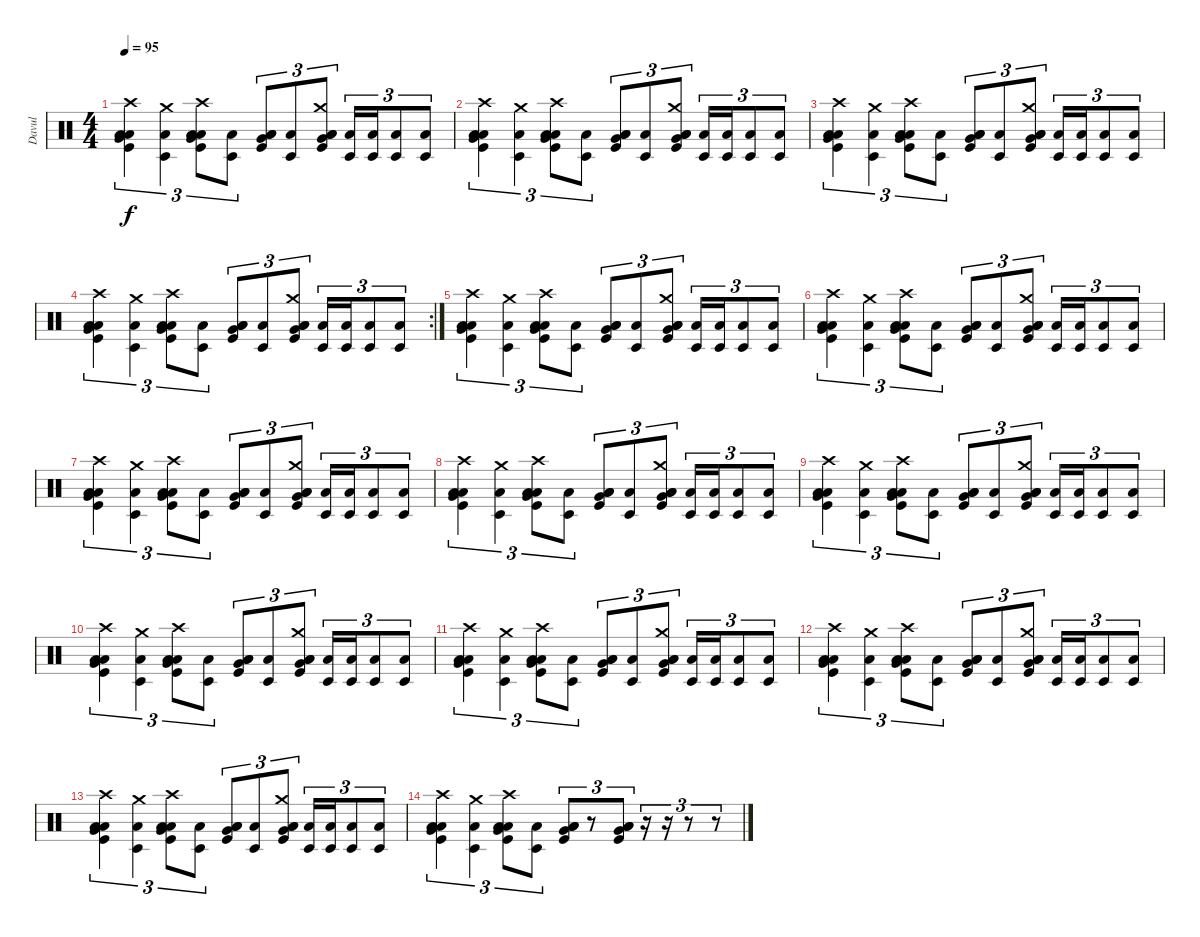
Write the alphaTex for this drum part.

\track ("Davul" "Davul") {instrument percussion}
\staff {score}
\articulation defaults
\ts (4 4)
\tempo 95
\clef neutral
\ks c
("Kick (hit)" "Low Tom (hit)" "Low Floor Tom (hit)" "Very Low Tom (hit)" "Crash high (hit)").4{tu (3 2) dy f} ("Timbale low (hit)" "Low Floor Tom (hit)" "Crash medium (hit)").4{tu (3 2)} ("Kick (hit)" "Low Tom (hit)" "Low Floor Tom (hit)" "Very Low Tom (hit)" "Crash high (hit)").8{tu (3 2)} ("Timbale low (hit)" "Low Floor Tom (hit)").8{tu (3 2)} ("Kick (hit)" "Low Tom (hit)" "Low Floor Tom (hit)" "Very Low Tom (hit)").8{tu (3 2)} ("Timbale low (hit)" "Low Floor Tom (hit)").8{tu (3 2)} ("Kick (hit)" "Low Tom (hit)" "Low Floor Tom (hit)" "Very Low Tom (hit)" "Crash medium (hit)").8{tu (3 2)} ("Timbale low (hit)" "Low Floor Tom (hit)").16{tu (3 2)} ("Timbale low (hit)" "Low Floor Tom (hit)").16{tu (3 2)} ("Timbale low (hit)" "Low Floor Tom (hit)").8{tu (3 2)} ("Timbale low (hit)" "Low Floor Tom (hit)").8{tu (3 2)} |
("Kick (hit)" "Low Tom (hit)" "Low Floor Tom (hit)" "Very Low Tom (hit)" "Crash high (hit)").4{tu (3 2)} ("Timbale low (hit)" "Low Floor Tom (hit)" "Crash medium (hit)").4{tu (3 2)} ("Kick (hit)" "Low Tom (hit)" "Low Floor Tom (hit)" "Very Low Tom (hit)" "Crash high (hit)").8{tu (3 2)} ("Timbale low (hit)" "Low Floor Tom (hit)").8{tu (3 2)} ("Kick (hit)" "Low Tom (hit)" "Low Floor Tom (hit)" "Very Low Tom (hit)").8{tu (3 2)} ("Timbale low (hit)" "Low Floor Tom (hit)").8{tu (3 2)} ("Kick (hit)" "Low Tom (hit)" "Low Floor Tom (hit)" "Very Low Tom (hit)" "Crash medium (hit)").8{tu (3 2)} ("Timbale low (hit)" "Low Floor Tom (hit)").16{tu (3 2)} ("Timbale low (hit)" "Low Floor Tom (hit)").16{tu (3 2)} ("Timbale low (hit)" "Low Floor Tom (hit)").8{tu (3 2)} ("Timbale low (hit)" "Low Floor Tom (hit)").8{tu (3 2)} |
("Kick (hit)" "Low Tom (hit)" "Low Floor Tom (hit)" "Very Low Tom (hit)" "Crash high (hit)").4{tu (3 2)} ("Timbale low (hit)" "Low Floor Tom (hit)" "Crash medium (hit)").4{tu (3 2)} ("Kick (hit)" "Low Tom (hit)" "Low Floor Tom (hit)" "Very Low Tom (hit)" "Crash high (hit)").8{tu (3 2)} ("Timbale low (hit)" "Low Floor Tom (hit)").8{tu (3 2)} ("Kick (hit)" "Low Tom (hit)" "Low Floor Tom (hit)" "Very Low Tom (hit)").8{tu (3 2)} ("Timbale low (hit)" "Low Floor Tom (hit)").8{tu (3 2)} ("Kick (hit)" "Low Tom (hit)" "Low Floor Tom (hit)" "Very Low Tom (hit)" "Crash medium (hit)").8{tu (3 2)} ("Timbale low (hit)" "Low Floor Tom (hit)").16{tu (3 2)} ("Timbale low (hit)" "Low Floor Tom (hit)").16{tu (3 2)} ("Timbale low (hit)" "Low Floor Tom (hit)").8{tu (3 2)} ("Timbale low (hit)" "Low Floor Tom (hit)").8{tu (3 2)} |
\rc 2
("Kick (hit)" "Low Tom (hit)" "Low Floor Tom (hit)" "Very Low Tom (hit)" "Crash high (hit)").4{tu (3 2)} ("Timbale low (hit)" "Low Floor Tom (hit)" "Crash medium (hit)").4{tu (3 2)} ("Kick (hit)" "Low Tom (hit)" "Low Floor Tom (hit)" "Very Low Tom (hit)" "Crash high (hit)").8{tu (3 2)} ("Timbale low (hit)" "Low Floor Tom (hit)").8{tu (3 2)} ("Kick (hit)" "Low Tom (hit)" "Low Floor Tom (hit)" "Very Low Tom (hit)").8{tu (3 2)} ("Timbale low (hit)" "Low Floor Tom (hit)").8{tu (3 2)} ("Kick (hit)" "Low Tom (hit)" "Low Floor Tom (hit)" "Very Low Tom (hit)" "Crash medium (hit)").8{tu (3 2)} ("Timbale low (hit)" "Low Floor Tom (hit)").16{tu (3 2)} ("Timbale low (hit)" "Low Floor Tom (hit)").16{tu (3 2)} ("Timbale low (hit)" "Low Floor Tom (hit)").8{tu (3 2)} ("Timbale low (hit)" "Low Floor Tom (hit)").8{tu (3 2)} |
("Kick (hit)" "Low Tom (hit)" "Low Floor Tom (hit)" "Very Low Tom (hit)" "Crash high (hit)").4{tu (3 2)} ("Timbale low (hit)" "Low Floor Tom (hit)" "Crash medium (hit)").4{tu (3 2)} ("Kick (hit)" "Low Tom (hit)" "Low Floor Tom (hit)" "Very Low Tom (hit)" "Crash high (hit)").8{tu (3 2)} ("Timbale low (hit)" "Low Floor Tom (hit)").8{tu (3 2)} ("Kick (hit)" "Low Tom (hit)" "Low Floor Tom (hit)" "Very Low Tom (hit)").8{tu (3 2)} ("Timbale low (hit)" "Low Floor Tom (hit)").8{tu (3 2)} ("Kick (hit)" "Low Tom (hit)" "Low Floor Tom (hit)" "Very Low Tom (hit)" "Crash medium (hit)").8{tu (3 2)} ("Timbale low (hit)" "Low Floor Tom (hit)").16{tu (3 2)} ("Timbale low (hit)" "Low Floor Tom (hit)").16{tu (3 2)} ("Timbale low (hit)" "Low Floor Tom (hit)").8{tu (3 2)} ("Timbale low (hit)" "Low Floor Tom (hit)").8{tu (3 2)} |
("Kick (hit)" "Low Tom (hit)" "Low Floor Tom (hit)" "Very Low Tom (hit)" "Crash high (hit)").4{tu (3 2)} ("Timbale low (hit)" "Low Floor Tom (hit)" "Crash medium (hit)").4{tu (3 2)} ("Kick (hit)" "Low Tom (hit)" "Low Floor Tom (hit)" "Very Low Tom (hit)" "Crash high (hit)").8{tu (3 2)} ("Timbale low (hit)" "Low Floor Tom (hit)").8{tu (3 2)} ("Kick (hit)" "Low Tom (hit)" "Low Floor Tom (hit)" "Very Low Tom (hit)").8{tu (3 2)} ("Timbale low (hit)" "Low Floor Tom (hit)").8{tu (3 2)} ("Kick (hit)" "Low Tom (hit)" "Low Floor Tom (hit)" "Very Low Tom (hit)" "Crash medium (hit)").8{tu (3 2)} ("Timbale low (hit)" "Low Floor Tom (hit)").16{tu (3 2)} ("Timbale low (hit)" "Low Floor Tom (hit)").16{tu (3 2)} ("Timbale low (hit)" "Low Floor Tom (hit)").8{tu (3 2)} ("Timbale low (hit)" "Low Floor Tom (hit)").8{tu (3 2)} |
("Kick (hit)" "Low Tom (hit)" "Low Floor Tom (hit)" "Very Low Tom (hit)" "Crash high (hit)").4{tu (3 2)} ("Timbale low (hit)" "Low Floor Tom (hit)" "Crash medium (hit)").4{tu (3 2)} ("Kick (hit)" "Low Tom (hit)" "Low Floor Tom (hit)" "Very Low Tom (hit)" "Crash high (hit)").8{tu (3 2)} ("Timbale low (hit)" "Low Floor Tom (hit)").8{tu (3 2)} ("Kick (hit)" "Low Tom (hit)" "Low Floor Tom (hit)" "Very Low Tom (hit)").8{tu (3 2)} ("Timbale low (hit)" "Low Floor Tom (hit)").8{tu (3 2)} ("Kick (hit)" "Low Tom (hit)" "Low Floor Tom (hit)" "Very Low Tom (hit)" "Crash medium (hit)").8{tu (3 2)} ("Timbale low (hit)" "Low Floor Tom (hit)").16{tu (3 2)} ("Timbale low (hit)" "Low Floor Tom (hit)").16{tu (3 2)} ("Timbale low (hit)" "Low Floor Tom (hit)").8{tu (3 2)} ("Timbale low (hit)" "Low Floor Tom (hit)").8{tu (3 2)} |
("Kick (hit)" "Low Tom (hit)" "Low Floor Tom (hit)" "Very Low Tom (hit)" "Crash high (hit)").4{tu (3 2)} ("Timbale low (hit)" "Low Floor Tom (hit)" "Crash medium (hit)").4{tu (3 2)} ("Kick (hit)" "Low Tom (hit)" "Low Floor Tom (hit)" "Very Low Tom (hit)" "Crash high (hit)").8{tu (3 2)} ("Timbale low (hit)" "Low Floor Tom (hit)").8{tu (3 2)} ("Kick (hit)" "Low Tom (hit)" "Low Floor Tom (hit)" "Very Low Tom (hit)").8{tu (3 2)} ("Timbale low (hit)" "Low Floor Tom (hit)").8{tu (3 2)} ("Kick (hit)" "Low Tom (hit)" "Low Floor Tom (hit)" "Very Low Tom (hit)" "Crash medium (hit)").8{tu (3 2)} ("Timbale low (hit)" "Low Floor Tom (hit)").16{tu (3 2)} ("Timbale low (hit)" "Low Floor Tom (hit)").16{tu (3 2)} ("Timbale low (hit)" "Low Floor Tom (hit)").8{tu (3 2)} ("Timbale low (hit)" "Low Floor Tom (hit)").8{tu (3 2)} |
("Kick (hit)" "Low Tom (hit)" "Low Floor Tom (hit)" "Very Low Tom (hit)" "Crash high (hit)").4{tu (3 2)} ("Timbale low (hit)" "Low Floor Tom (hit)" "Crash medium (hit)").4{tu (3 2)} ("Kick (hit)" "Low Tom (hit)" "Low Floor Tom (hit)" "Very Low Tom (hit)" "Crash high (hit)").8{tu (3 2)} ("Timbale low (hit)" "Low Floor Tom (hit)").8{tu (3 2)} ("Kick (hit)" "Low Tom (hit)" "Low Floor Tom (hit)" "Very Low Tom (hit)").8{tu (3 2)} ("Timbale low (hit)" "Low Floor Tom (hit)").8{tu (3 2)} ("Kick (hit)" "Low Tom (hit)" "Low Floor Tom (hit)" "Very Low Tom (hit)" "Crash medium (hit)").8{tu (3 2)} ("Timbale low (hit)" "Low Floor Tom (hit)").16{tu (3 2)} ("Timbale low (hit)" "Low Floor Tom (hit)").16{tu (3 2)} ("Timbale low (hit)" "Low Floor Tom (hit)").8{tu (3 2)} ("Timbale low (hit)" "Low Floor Tom (hit)").8{tu (3 2)} |
("Kick (hit)" "Low Tom (hit)" "Low Floor Tom (hit)" "Very Low Tom (hit)" "Crash high (hit)").4{tu (3 2)} ("Timbale low (hit)" "Low Floor Tom (hit)" "Crash medium (hit)").4{tu (3 2)} ("Kick (hit)" "Low Tom (hit)" "Low Floor Tom (hit)" "Very Low Tom (hit)" "Crash high (hit)").8{tu (3 2)} ("Timbale low (hit)" "Low Floor Tom (hit)").8{tu (3 2)} ("Kick (hit)" "Low Tom (hit)" "Low Floor Tom (hit)" "Very Low Tom (hit)").8{tu (3 2)} ("Timbale low (hit)" "Low Floor Tom (hit)").8{tu (3 2)} ("Kick (hit)" "Low Tom (hit)" "Low Floor Tom (hit)" "Very Low Tom (hit)" "Crash medium (hit)").8{tu (3 2)} ("Timbale low (hit)" "Low Floor Tom (hit)").16{tu (3 2)} ("Timbale low (hit)" "Low Floor Tom (hit)").16{tu (3 2)} ("Timbale low (hit)" "Low Floor Tom (hit)").8{tu (3 2)} ("Timbale low (hit)" "Low Floor Tom (hit)").8{tu (3 2)} |
("Kick (hit)" "Low Tom (hit)" "Low Floor Tom (hit)" "Very Low Tom (hit)" "Crash high (hit)").4{tu (3 2)} ("Timbale low (hit)" "Low Floor Tom (hit)" "Crash medium (hit)").4{tu (3 2)} ("Kick (hit)" "Low Tom (hit)" "Low Floor Tom (hit)" "Very Low Tom (hit)" "Crash high (hit)").8{tu (3 2)} ("Timbale low (hit)" "Low Floor Tom (hit)").8{tu (3 2)} ("Kick (hit)" "Low Tom (hit)" "Low Floor Tom (hit)" "Very Low Tom (hit)").8{tu (3 2)} ("Timbale low (hit)" "Low Floor Tom (hit)").8{tu (3 2)} ("Kick (hit)" "Low Tom (hit)" "Low Floor Tom (hit)" "Very Low Tom (hit)" "Crash medium (hit)").8{tu (3 2)} ("Timbale low (hit)" "Low Floor Tom (hit)").16{tu (3 2)} ("Timbale low (hit)" "Low Floor Tom (hit)").16{tu (3 2)} ("Timbale low (hit)" "Low Floor Tom (hit)").8{tu (3 2)} ("Timbale low (hit)" "Low Floor Tom (hit)").8{tu (3 2)} |
("Kick (hit)" "Low Tom (hit)" "Low Floor Tom (hit)" "Very Low Tom (hit)" "Crash high (hit)").4{tu (3 2)} ("Timbale low (hit)" "Low Floor Tom (hit)" "Crash medium (hit)").4{tu (3 2)} ("Kick (hit)" "Low Tom (hit)" "Low Floor Tom (hit)" "Very Low Tom (hit)" "Crash high (hit)").8{tu (3 2)} ("Timbale low (hit)" "Low Floor Tom (hit)").8{tu (3 2)} ("Kick (hit)" "Low Tom (hit)" "Low Floor Tom (hit)" "Very Low Tom (hit)").8{tu (3 2)} ("Timbale low (hit)" "Low Floor Tom (hit)").8{tu (3 2)} ("Kick (hit)" "Low Tom (hit)" "Low Floor Tom (hit)" "Very Low Tom (hit)" "Crash medium (hit)").8{tu (3 2)} ("Timbale low (hit)" "Low Floor Tom (hit)").16{tu (3 2)} ("Timbale low (hit)" "Low Floor Tom (hit)").16{tu (3 2)} ("Timbale low (hit)" "Low Floor Tom (hit)").8{tu (3 2)} ("Timbale low (hit)" "Low Floor Tom (hit)").8{tu (3 2)} |
("Kick (hit)" "Low Tom (hit)" "Low Floor Tom (hit)" "Very Low Tom (hit)" "Crash high (hit)").4{tu (3 2)} ("Timbale low (hit)" "Low Floor Tom (hit)" "Crash medium (hit)").4{tu (3 2)} ("Kick (hit)" "Low Tom (hit)" "Low Floor Tom (hit)" "Very Low Tom (hit)" "Crash high (hit)").8{tu (3 2)} ("Timbale low (hit)" "Low Floor Tom (hit)").8{tu (3 2)} ("Kick (hit)" "Low Tom (hit)" "Low Floor Tom (hit)" "Very Low Tom (hit)").8{tu (3 2)} ("Timbale low (hit)" "Low Floor Tom (hit)").8{tu (3 2)} ("Kick (hit)" "Low Tom (hit)" "Low Floor Tom (hit)" "Very Low Tom (hit)" "Crash medium (hit)").8{tu (3 2)} ("Timbale low (hit)" "Low Floor Tom (hit)").16{tu (3 2)} ("Timbale low (hit)" "Low Floor Tom (hit)").16{tu (3 2)} ("Timbale low (hit)" "Low Floor Tom (hit)").8{tu (3 2)} ("Timbale low (hit)" "Low Floor Tom (hit)").8{tu (3 2)} |
("Kick (hit)" "Low Tom (hit)" "Low Floor Tom (hit)" "Very Low Tom (hit)" "Crash high (hit)").4{tu (3 2)} ("Timbale low (hit)" "Low Floor Tom (hit)" "Crash medium (hit)").4{tu (3 2)} ("Kick (hit)" "Low Tom (hit)" "Low Floor Tom (hit)" "Very Low Tom (hit)" "Crash high (hit)").8{tu (3 2)} ("Timbale low (hit)" "Low Floor Tom (hit)").8{tu (3 2)} ("Kick (hit)" "Low Tom (hit)" "Low Floor Tom (hit)" "Very Low Tom (hit)").8{tu (3 2)} r.8{tu (3 2)} ("Kick (hit)" "Low Tom (hit)" "Low Floor Tom (hit)" "Very Low Tom (hit)").8{tu (3 2) bu 480} r.16{tu (3 2)} r.16{tu (3 2)} r.8{tu (3 2)} r.8{tu (3 2)}
